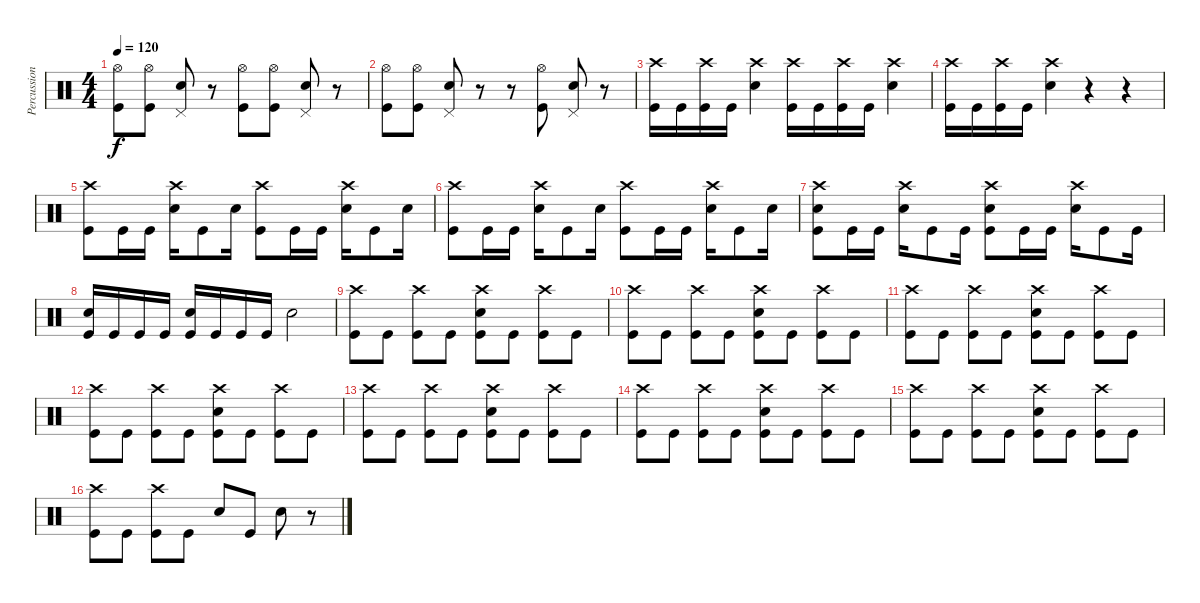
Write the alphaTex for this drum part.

\track ("Percussion" "Percussion") {instrument percussion}
\staff {score}
\articulation defaults
\ts (4 4)
\tempo 120
\clef neutral
\ks c
("Hi-Hat (open)" "Kick (hit)").8{dy f} ("Hi-Hat (open)" "Kick (hit)").8 ("Snare (hit) 2" "Pedal Hi-Hat (hit)").8 r.8 ("Hi-Hat (open)" "Kick (hit)").8 ("Hi-Hat (open)" "Kick (hit)").8 ("Snare (hit) 2" "Pedal Hi-Hat (hit)").8 r.8 |
("Hi-Hat (open)" "Kick (hit)").8 ("Hi-Hat (open)" "Kick (hit)").8 ("Snare (hit) 2" "Pedal Hi-Hat (hit)").8 r.8 r.8 ("Hi-Hat (open)" "Kick (hit)").8 ("Snare (hit) 2" "Pedal Hi-Hat (hit)").8 r.8 |
("Kick (hit)" "Crash high (hit)").16 "Kick (hit)".16 ("Kick (hit)" "Crash high (hit)").16 "Kick (hit)".16 ("Snare (hit) 2" "Crash high (hit)").4 ("Kick (hit)" "Crash high (hit)").16 "Kick (hit)".16 ("Kick (hit)" "Crash high (hit)").16 "Kick (hit)".16 ("Snare (hit) 2" "Crash high (hit)").4 |
("Kick (hit)" "Crash high (hit)").16 "Kick (hit)".16 ("Kick (hit)" "Crash high (hit)").16 "Kick (hit)".16 ("Snare (hit) 2" "Crash high (hit)").4 r.4 r.4 |
("Kick (hit)" "Crash high (hit)").8 "Kick (hit)".16 "Kick (hit)".16 ("Snare (hit) 2" "Crash high (hit)").16 "Kick (hit)".8 "Snare (hit) 2".16 ("Kick (hit)" "Crash high (hit)").8 "Kick (hit)".16 "Kick (hit)".16 ("Snare (hit) 2" "Crash high (hit)").16 "Kick (hit)".8 "Snare (hit) 2".16 |
("Kick (hit)" "Crash high (hit)").8 "Kick (hit)".16 "Kick (hit)".16 ("Snare (hit) 2" "Crash high (hit)").16 "Kick (hit)".8 "Snare (hit) 2".16 ("Kick (hit)" "Crash high (hit)").8 "Kick (hit)".16 "Kick (hit)".16 ("Snare (hit) 2" "Crash high (hit)").16 "Kick (hit)".8 "Snare (hit) 2".16 |
("Kick (hit)" "Crash high (hit)" "Snare (hit) 2").8 "Kick (hit)".16 "Kick (hit)".16 ("Snare (hit) 2" "Crash high (hit)").16 "Kick (hit)".8 "Kick (hit)".16 ("Kick (hit)" "Crash high (hit)" "Snare (hit) 2").8 "Kick (hit)".16 "Kick (hit)".16 ("Snare (hit) 2" "Crash high (hit)").16 "Kick (hit)".8 "Kick (hit)".16 |
("Snare (hit) 2" "Kick (hit)").16 "Kick (hit)".16 "Kick (hit)".16 "Kick (hit)".16 ("Snare (hit) 2" "Kick (hit)").16 "Kick (hit)".16 "Kick (hit)".16 "Kick (hit)".16 "Snare (hit) 2".2 |
("Kick (hit)" "Crash high (hit)").8 "Kick (hit)".8 ("Kick (hit)" "Crash high (hit)").8 "Kick (hit)".8 ("Kick (hit)" "Snare (hit) 2" "Crash high (hit)").8 "Kick (hit)".8 ("Kick (hit)" "Crash high (hit)").8 "Kick (hit)".8 |
("Kick (hit)" "Crash high (hit)").8 "Kick (hit)".8 ("Kick (hit)" "Crash high (hit)").8 "Kick (hit)".8 ("Kick (hit)" "Snare (hit) 2" "Crash high (hit)").8 "Kick (hit)".8 ("Kick (hit)" "Crash high (hit)").8 "Kick (hit)".8 |
("Kick (hit)" "Crash high (hit)").8 "Kick (hit)".8 ("Kick (hit)" "Crash high (hit)").8 "Kick (hit)".8 ("Kick (hit)" "Snare (hit) 2" "Crash high (hit)").8 "Kick (hit)".8 ("Kick (hit)" "Crash high (hit)").8 "Kick (hit)".8 |
("Kick (hit)" "Crash high (hit)").8 "Kick (hit)".8 ("Kick (hit)" "Crash high (hit)").8 "Kick (hit)".8 ("Kick (hit)" "Snare (hit) 2" "Crash high (hit)").8 "Kick (hit)".8 ("Kick (hit)" "Crash high (hit)").8 "Kick (hit)".8 |
("Kick (hit)" "Crash high (hit)").8 "Kick (hit)".8 ("Kick (hit)" "Crash high (hit)").8 "Kick (hit)".8 ("Kick (hit)" "Snare (hit) 2" "Crash high (hit)").8 "Kick (hit)".8 ("Kick (hit)" "Crash high (hit)").8 "Kick (hit)".8 |
("Kick (hit)" "Crash high (hit)").8 "Kick (hit)".8 ("Kick (hit)" "Crash high (hit)").8 "Kick (hit)".8 ("Kick (hit)" "Snare (hit) 2" "Crash high (hit)").8 "Kick (hit)".8 ("Kick (hit)" "Crash high (hit)").8 "Kick (hit)".8 |
("Kick (hit)" "Crash high (hit)").8 "Kick (hit)".8 ("Kick (hit)" "Crash high (hit)").8 "Kick (hit)".8 ("Kick (hit)" "Snare (hit) 2" "Crash high (hit)").8 "Kick (hit)".8 ("Kick (hit)" "Crash high (hit)").8 "Kick (hit)".8 |
("Kick (hit)" "Crash high (hit)").8 "Kick (hit)".8 ("Kick (hit)" "Crash high (hit)").8 "Kick (hit)".8 "Snare (hit) 2".8 "Kick (hit)".8 "Snare (hit) 2".8 r.8
